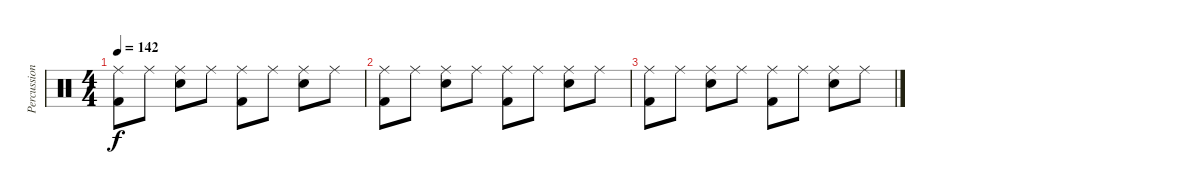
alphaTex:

\track ("Percussion" "Percussion") {instrument percussion}
\staff {score}
\articulation defaults
\ts (4 4)
\tempo 142
\clef neutral
\ks c
("Kick (hit) 2" "Ride (middle)").8{dy f volume 0} "Ride (middle)".8 ("Snare (hit) 2" "Ride (middle)").8 "Ride (middle)".8 ("Kick (hit) 2" "Ride (middle)").8 "Ride (middle)".8 ("Snare (hit) 2" "Ride (middle)").8 "Ride (middle)".8 |
("Kick (hit) 2" "Ride (middle)").8 "Ride (middle)".8 ("Snare (hit) 2" "Ride (middle)").8 "Ride (middle)".8 ("Kick (hit) 2" "Ride (middle)").8 "Ride (middle)".8 ("Snare (hit) 2" "Ride (middle)").8 "Ride (middle)".8 |
("Kick (hit) 2" "Ride (middle)").8 "Ride (middle)".8 ("Snare (hit) 2" "Ride (middle)").8 "Ride (middle)".8 ("Kick (hit) 2" "Ride (middle)").8 "Ride (middle)".8 ("Snare (hit) 2" "Ride (middle)").8 "Ride (middle)".8
